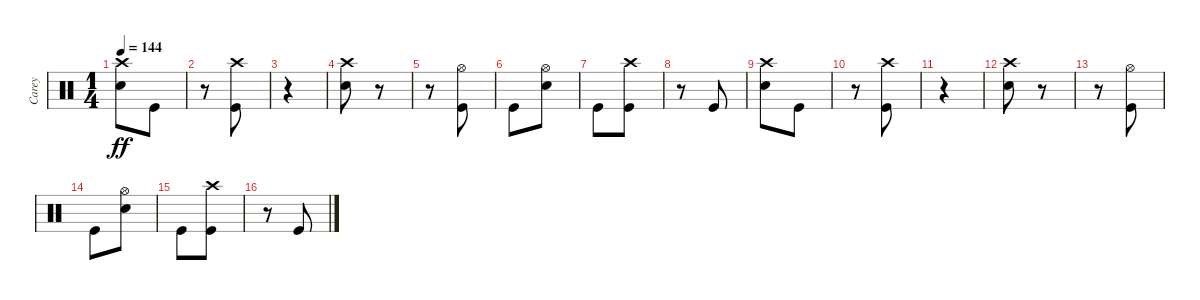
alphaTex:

\track ("Carey" "Carey") {instrument percussion}
\staff {score}
\articulation defaults
\ts (1 4)
\tempo 144
\clef neutral
\ks c
("Snare (hit) 2" "Crash high (hit)").8{dy ff} "Kick (hit)".8 |
r.8 ("Kick (hit)" "Crash high (hit)").8 |
r.4 |
("Snare (hit) 2" "Crash high (hit)").8 r.8 |
r.8 ("Kick (hit)" "Hi-Hat (open)").8 |
"Kick (hit)".8 ("Snare (hit) 2" "Hi-Hat (open)").8 |
"Kick (hit)".8 ("Kick (hit)" "Crash high (hit)").8 |
r.8 "Kick (hit)".8 |
("Snare (hit) 2" "Crash high (hit)").8 "Kick (hit)".8 |
r.8 ("Kick (hit)" "Crash high (hit)").8 |
r.4 |
("Snare (hit) 2" "Crash high (hit)").8 r.8 |
r.8 ("Kick (hit)" "Hi-Hat (open)").8 |
"Kick (hit)".8 ("Snare (hit) 2" "Hi-Hat (open)").8 |
"Kick (hit)".8 ("Kick (hit)" "Crash high (hit)").8 |
r.8 "Kick (hit)".8
